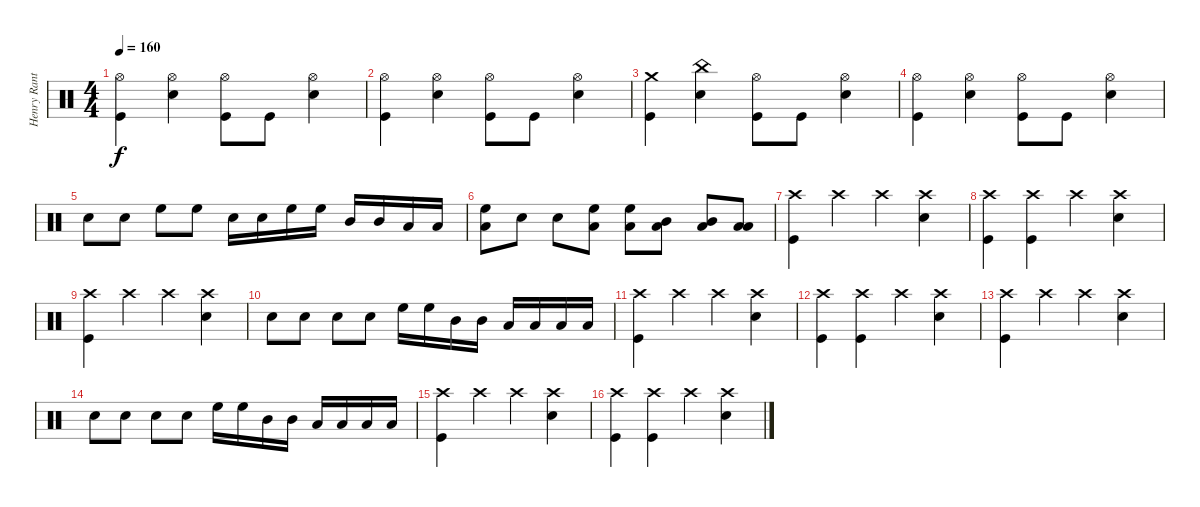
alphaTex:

\track ("Henry Ranta" "Henry Rant") {instrument percussion}
\staff {score}
\articulation defaults
\ts (4 4)
\tempo 160
\clef neutral
\ks c
("Hi-Hat (open)" "Kick (hit)").4{dy f} ("Hi-Hat (open)" "Snare (hit) 2").4 ("Hi-Hat (open)" "Kick (hit)").8 "Kick (hit)".8 ("Hi-Hat (open)" "Snare (hit) 2").4 |
("Hi-Hat (open)" "Kick (hit)").4 ("Hi-Hat (open)" "Snare (hit) 2").4 ("Hi-Hat (open)" "Kick (hit)").8 "Kick (hit)".8 ("Hi-Hat (open)" "Snare (hit) 2").4 |
("Crash medium (hit)" "Kick (hit)").4 ("China (hit)" "Snare (hit) 2").4 ("Hi-Hat (open)" "Kick (hit)").8 "Kick (hit)".8 ("Hi-Hat (open)" "Snare (hit) 2").4 |
("Hi-Hat (open)" "Kick (hit)").4 ("Hi-Hat (open)" "Snare (hit) 2").4 ("Hi-Hat (open)" "Kick (hit)").8 "Kick (hit)".8 ("Hi-Hat (open)" "Snare (hit) 2").4 |
"Snare (hit) 2".8 "Snare (hit) 2".8 "High Floor Tom (hit)".8 "High Floor Tom (hit)".8 "Snare (hit) 2".16 "Snare (hit) 2".16 "High Floor Tom (hit)".16 "High Floor Tom (hit)".16 "Mid Tom (hit)".16 "Mid Tom (hit)".16 "Low Tom (hit)".16 "Low Tom (hit)".16 |
("Low Floor Tom (hit)" "High Floor Tom (hit)").8 "Snare (hit) 2".8 "Snare (hit) 2".8 ("Low Floor Tom (hit)" "High Floor Tom (hit)").8 ("Low Floor Tom (hit)" "High Floor Tom (hit)").8 ("Low Floor Tom (hit)" "Mid Tom (hit)").8 ("Low Floor Tom (hit)" "Mid Tom (hit)").8 ("Low Floor Tom (hit)" "Low Tom (hit)").8 |
("Crash high (hit)" "Kick (hit)").4 "Crash high (hit)".4 "Crash high (hit)".4 ("Crash high (hit)" "Snare (hit) 2").4 |
("Crash high (hit)" "Kick (hit)").4 ("Crash high (hit)" "Kick (hit)").4 "Crash high (hit)".4 ("Crash high (hit)" "Snare (hit) 2").4 |
("Crash high (hit)" "Kick (hit)").4 "Crash high (hit)".4 "Crash high (hit)".4 ("Crash high (hit)" "Snare (hit) 2").4 |
"Snare (hit) 2".8 "Snare (hit) 2".8 "Snare (hit) 2".8 "Snare (hit) 2".8 "High Floor Tom (hit)".16 "High Floor Tom (hit)".16 "Mid Tom (hit)".16 "Mid Tom (hit)".16 "Low Tom (hit)".16 "Low Tom (hit)".16 "Low Floor Tom (hit)".16 "Low Floor Tom (hit)".16 |
("Crash high (hit)" "Kick (hit)").4 "Crash high (hit)".4 "Crash high (hit)".4 ("Crash high (hit)" "Snare (hit) 2").4 |
("Crash high (hit)" "Kick (hit)").4 ("Crash high (hit)" "Kick (hit)").4 "Crash high (hit)".4 ("Crash high (hit)" "Snare (hit) 2").4 |
("Crash high (hit)" "Kick (hit)").4 "Crash high (hit)".4 "Crash high (hit)".4 ("Crash high (hit)" "Snare (hit) 2").4 |
"Snare (hit) 2".8 "Snare (hit) 2".8 "Snare (hit) 2".8 "Snare (hit) 2".8 "High Floor Tom (hit)".16 "High Floor Tom (hit)".16 "Mid Tom (hit)".16 "Mid Tom (hit)".16 "Low Tom (hit)".16 "Low Tom (hit)".16 "Low Floor Tom (hit)".16 "Low Floor Tom (hit)".16 |
("Crash high (hit)" "Kick (hit)").4 "Crash high (hit)".4 "Crash high (hit)".4 ("Crash high (hit)" "Snare (hit) 2").4 |
("Crash high (hit)" "Kick (hit)").4 ("Crash high (hit)" "Kick (hit)").4 "Crash high (hit)".4 ("Crash high (hit)" "Snare (hit) 2").4
